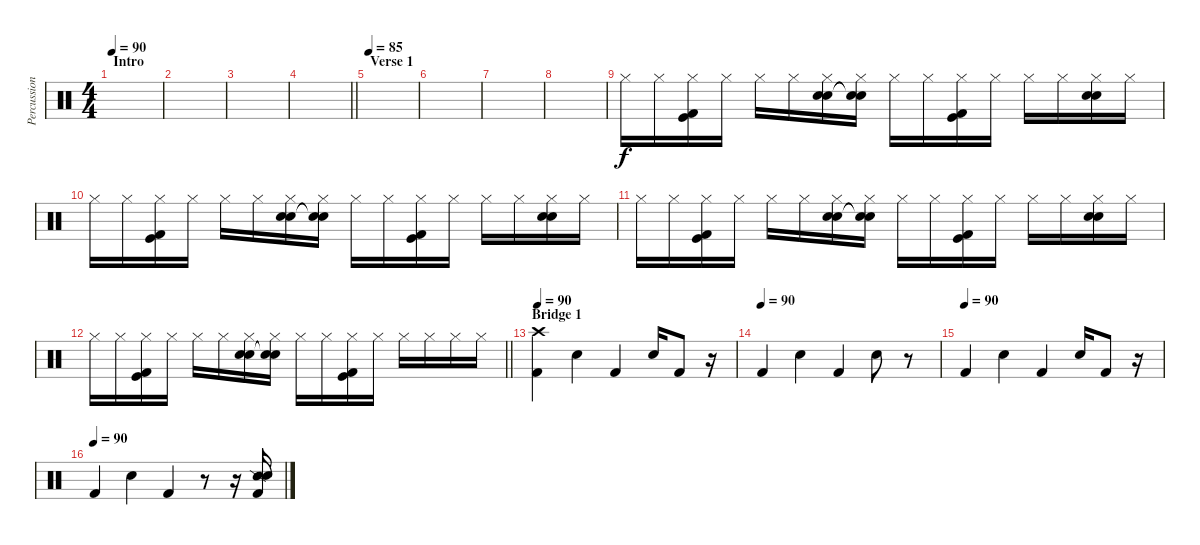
\track ("Percussion" "Percussion") {instrument percussion}
\staff {score}
\articulation defaults
\ts (4 4)
\section ("" "Intro")
\tempo 90
\clef neutral
\ks c
|
|
|
\barLineRight lightlight
|
\section ("" "Verse 1")
\tempo 85
|
|
|
|
"Hi-Hat (closed)".16 "Hi-Hat (closed)".16 ("Kick (hit)" "Hi-Hat (closed)" "Kick (hit) 2").16 "Hi-Hat (closed)".16 "Hi-Hat (closed)".16 "Hi-Hat (closed)".16 ("Electric Snare (hit)" "Hi-Hat (closed)" "Snare (hit) 2").16 ("Snare (hit)"{t} "Hi-Hat (closed)" "Snare (hit) 2"{t}).16 "Hi-Hat (closed)".16 "Hi-Hat (closed)".16 ("Kick (hit)" "Hi-Hat (closed)" "Kick (hit) 2").16 "Hi-Hat (closed)".16 "Hi-Hat (closed)".16 "Hi-Hat (closed)".16 ("Electric Snare (hit)" "Hi-Hat (closed)" "Snare (hit) 2").16 "Hi-Hat (closed)".16 |
"Hi-Hat (closed)".16 "Hi-Hat (closed)".16 ("Kick (hit)" "Hi-Hat (closed)" "Kick (hit) 2").16 "Hi-Hat (closed)".16 "Hi-Hat (closed)".16 "Hi-Hat (closed)".16 ("Electric Snare (hit)" "Hi-Hat (closed)" "Snare (hit) 2").16 ("Snare (hit)"{t} "Hi-Hat (closed)" "Snare (hit) 2"{t}).16 "Hi-Hat (closed)".16 "Hi-Hat (closed)".16 ("Kick (hit)" "Hi-Hat (closed)" "Kick (hit) 2").16 "Hi-Hat (closed)".16 "Hi-Hat (closed)".16 "Hi-Hat (closed)".16 ("Electric Snare (hit)" "Hi-Hat (closed)" "Snare (hit) 2").16 "Hi-Hat (closed)".16 |
"Hi-Hat (closed)".16 "Hi-Hat (closed)".16 ("Kick (hit)" "Hi-Hat (closed)" "Kick (hit) 2").16 "Hi-Hat (closed)".16 "Hi-Hat (closed)".16 "Hi-Hat (closed)".16 ("Electric Snare (hit)" "Hi-Hat (closed)" "Snare (hit) 2").16 ("Snare (hit)"{t} "Hi-Hat (closed)" "Snare (hit) 2"{t}).16 "Hi-Hat (closed)".16 "Hi-Hat (closed)".16 ("Kick (hit)" "Hi-Hat (closed)" "Kick (hit) 2").16 "Hi-Hat (closed)".16 "Hi-Hat (closed)".16 "Hi-Hat (closed)".16 ("Electric Snare (hit)" "Hi-Hat (closed)" "Snare (hit) 2").16 "Hi-Hat (closed)".16 |
\barLineRight lightlight "Hi-Hat (closed)".16 "Hi-Hat (closed)".16
("Kick (hit)" "Hi-Hat (closed)" "Kick (hit) 2").16 "Hi-Hat (closed)".16 "Hi-Hat (closed)".16 "Hi-Hat (closed)".16 ("Electric Snare (hit)" "Hi-Hat (closed)" "Snare (hit) 2").16 ("Snare (hit)"{t} "Hi-Hat (closed)" "Snare (hit) 2"{t}).16 "Hi-Hat (closed)".16 "Hi-Hat (closed)".16 ("Kick (hit)" "Hi-Hat (closed)" "Kick (hit) 2").16 "Hi-Hat (closed)".16 "Hi-Hat (closed)".16 "Hi-Hat (closed)".16 "Hi-Hat (closed)".16 "Hi-Hat (closed)".16 |
\section ("" "Bridge 1")
\tempo 90
("Crash high (hit)" "Kick (hit) 2").4 "Snare (hit) 2".4 "Kick (hit) 2".4 "Snare (hit) 2".16 "Kick (hit) 2".8 r.16 |
\tempo (90)
"Kick (hit) 2".4 "Snare (hit) 2".4 "Kick (hit) 2".4 "Snare (hit) 2".8 r.8 |
\tempo (90)
"Kick (hit) 2".4 "Snare (hit) 2".4 "Kick (hit) 2".4 "Snare (hit) 2".16 "Kick (hit) 2".8 r.16 |
\tempo (90)
"Kick (hit) 2".4 "Snare (hit) 2".4 "Kick (hit) 2".4 r.8 r.16 ("Snare (side stick) 2" "Snare (hit) 2" "Kick (hit) 2").16
